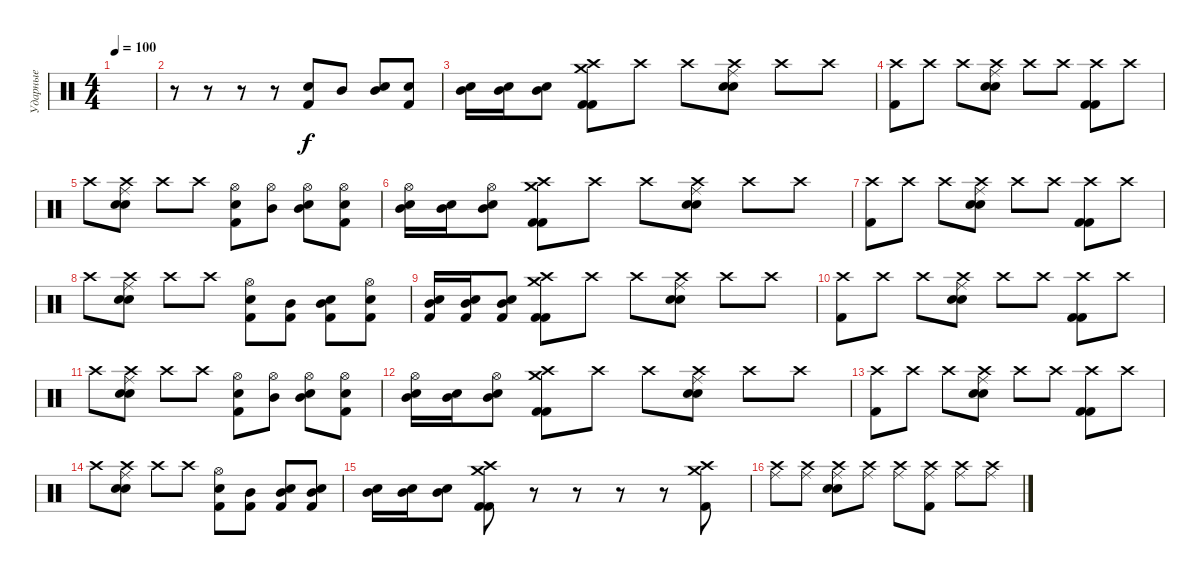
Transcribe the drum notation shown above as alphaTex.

\track ("Ударные" "Ударные") {instrument percussion}
\staff {score}
\articulation defaults
\ts (4 4)
\tempo 100
\clef neutral
\ks c
|
r.8 r.8 r.8 r.8 ("Snare (hit) 2" "Kick (hit) 2").8 "Mid Tom (hit)".8 ("Electric Snare (hit)" "Mid Tom (hit)").8 ("Snare (hit) 2" "Kick (hit) 2").8 |
("Electric Snare (hit)" "Mid Tom (hit)").16 ("Electric Snare (hit)" "Mid Tom (hit)").16 ("Electric Snare (hit)" "Mid Tom (hit)").8 ("Crash high (hit)" "Crash medium (hit)" "Kick (hit) 2" "Kick (hit) 2").8 "Crash high (hit)".8 "Crash high (hit)".8 ("Crash high (hit)" "Ride (middle)" "Electric Snare (hit)" "Hand Clap (hit)").8 "Crash high (hit)".8 "Crash high (hit)".8 |
("Crash high (hit)" "Kick (hit) 2").8 "Crash high (hit)".8 "Crash high (hit)".8 ("Crash high (hit)" "Ride (middle)" "Hand Clap (hit)" "Electric Snare (hit)").8 "Crash high (hit)".8 "Crash high (hit)".8 ("Crash high (hit)" "Kick (hit) 2" "Kick (hit) 2").8 "Crash high (hit)".8 |
"Crash high (hit)".8 ("Crash high (hit)" "Electric Snare (hit)" "Hand Clap (hit)" "Ride (middle)").8 "Crash high (hit)".8 "Crash high (hit)".8 ("Snare (hit) 2" "Kick (hit) 2" "Hi-Hat (open)").8 ("Mid Tom (hit)" "Hi-Hat (open)").8 ("Electric Snare (hit)" "Mid Tom (hit)" "Hi-Hat (open)").8 ("Snare (hit) 2" "Kick (hit) 2" "Hi-Hat (open)").8 |
("Electric Snare (hit)" "Mid Tom (hit)" "Hi-Hat (open)").16 ("Electric Snare (hit)" "Mid Tom (hit)").16 ("Electric Snare (hit)" "Mid Tom (hit)" "Hi-Hat (open)").8 ("Crash high (hit)" "Crash medium (hit)" "Kick (hit) 2" "Kick (hit) 2").8 "Crash high (hit)".8 "Crash high (hit)".8 ("Crash high (hit)" "Ride (middle)" "Electric Snare (hit)" "Hand Clap (hit)").8 "Crash high (hit)".8 "Crash high (hit)".8 |
("Crash high (hit)" "Kick (hit) 2").8 "Crash high (hit)".8 "Crash high (hit)".8 ("Crash high (hit)" "Ride (middle)" "Hand Clap (hit)" "Electric Snare (hit)").8 "Crash high (hit)".8 "Crash high (hit)".8 ("Crash high (hit)" "Kick (hit) 2" "Kick (hit) 2").8 "Crash high (hit)".8 |
"Crash high (hit)".8 ("Crash high (hit)" "Electric Snare (hit)" "Hand Clap (hit)" "Ride (middle)").8 "Crash high (hit)".8 "Crash high (hit)".8 ("Snare (hit) 2" "Kick (hit) 2" "Hi-Hat (open)").8 ("Mid Tom (hit)" "Kick (hit) 2").8 ("Electric Snare (hit)" "Mid Tom (hit)" "Kick (hit) 2").8 ("Snare (hit) 2" "Kick (hit) 2" "Hi-Hat (open)").8 |
("Electric Snare (hit)" "Mid Tom (hit)" "Kick (hit) 2").16 ("Electric Snare (hit)" "Mid Tom (hit)" "Kick (hit) 2").16 ("Electric Snare (hit)" "Mid Tom (hit)" "Kick (hit) 2").8 ("Crash high (hit)" "Crash medium (hit)" "Kick (hit) 2" "Kick (hit) 2").8 "Crash high (hit)".8 "Crash high (hit)".8 ("Crash high (hit)" "Ride (middle)" "Electric Snare (hit)" "Hand Clap (hit)").8 "Crash high (hit)".8 "Crash high (hit)".8 |
("Crash high (hit)" "Kick (hit) 2").8 "Crash high (hit)".8 "Crash high (hit)".8 ("Crash high (hit)" "Ride (middle)" "Hand Clap (hit)" "Electric Snare (hit)").8 "Crash high (hit)".8 "Crash high (hit)".8 ("Crash high (hit)" "Kick (hit) 2" "Kick (hit) 2").8 "Crash high (hit)".8 |
"Crash high (hit)".8 ("Crash high (hit)" "Electric Snare (hit)" "Hand Clap (hit)" "Ride (middle)").8 "Crash high (hit)".8 "Crash high (hit)".8 ("Snare (hit) 2" "Kick (hit) 2" "Hi-Hat (open)").8 ("Mid Tom (hit)" "Hi-Hat (open)").8 ("Electric Snare (hit)" "Mid Tom (hit)" "Hi-Hat (open)").8 ("Snare (hit) 2" "Kick (hit) 2" "Hi-Hat (open)").8 |
("Electric Snare (hit)" "Mid Tom (hit)" "Hi-Hat (open)").16 ("Electric Snare (hit)" "Mid Tom (hit)").16 ("Electric Snare (hit)" "Mid Tom (hit)" "Hi-Hat (open)").8 ("Crash high (hit)" "Crash medium (hit)" "Kick (hit) 2" "Kick (hit) 2").8 "Crash high (hit)".8 "Crash high (hit)".8 ("Crash high (hit)" "Ride (middle)" "Electric Snare (hit)" "Hand Clap (hit)").8 "Crash high (hit)".8 "Crash high (hit)".8 |
("Crash high (hit)" "Kick (hit) 2").8 "Crash high (hit)".8 "Crash high (hit)".8 ("Crash high (hit)" "Ride (middle)" "Hand Clap (hit)" "Electric Snare (hit)").8 "Crash high (hit)".8 "Crash high (hit)".8 ("Crash high (hit)" "Kick (hit) 2" "Kick (hit) 2").8 "Crash high (hit)".8 |
"Crash high (hit)".8 ("Crash high (hit)" "Electric Snare (hit)" "Hand Clap (hit)" "Ride (middle)").8 "Crash high (hit)".8 "Crash high (hit)".8 ("Snare (hit) 2" "Kick (hit) 2" "Hi-Hat (open)").8 ("Mid Tom (hit)" "Kick (hit) 2").8 ("Electric Snare (hit)" "Mid Tom (hit)" "Kick (hit) 2").8 ("Snare (hit) 2" "Kick (hit) 2" "Mid Tom (hit)").8 |
("Electric Snare (hit)" "Mid Tom (hit)").16 ("Electric Snare (hit)" "Mid Tom (hit)").16 ("Electric Snare (hit)" "Mid Tom (hit)").8 ("Crash high (hit)" "Crash medium (hit)" "Kick (hit) 2" "Kick (hit) 2").8 r.8 r.8 r.8 r.8 ("Crash medium (hit)" "Crash high (hit)" "Kick (hit) 2").8 |
("Crash high (hit)" "Ride (middle)").8 ("Crash high (hit)" "Ride (middle)").8 ("Crash high (hit)" "Hand Clap (hit)" "Electric Snare (hit)" "Ride (middle)").8 ("Crash high (hit)" "Ride (middle)").8 ("Crash high (hit)" "Ride (middle)").8 ("Crash high (hit)" "Kick (hit) 2" "Ride (middle)").8 ("Crash high (hit)" "Ride (middle)").8 ("Crash high (hit)" "Ride (middle)").8
